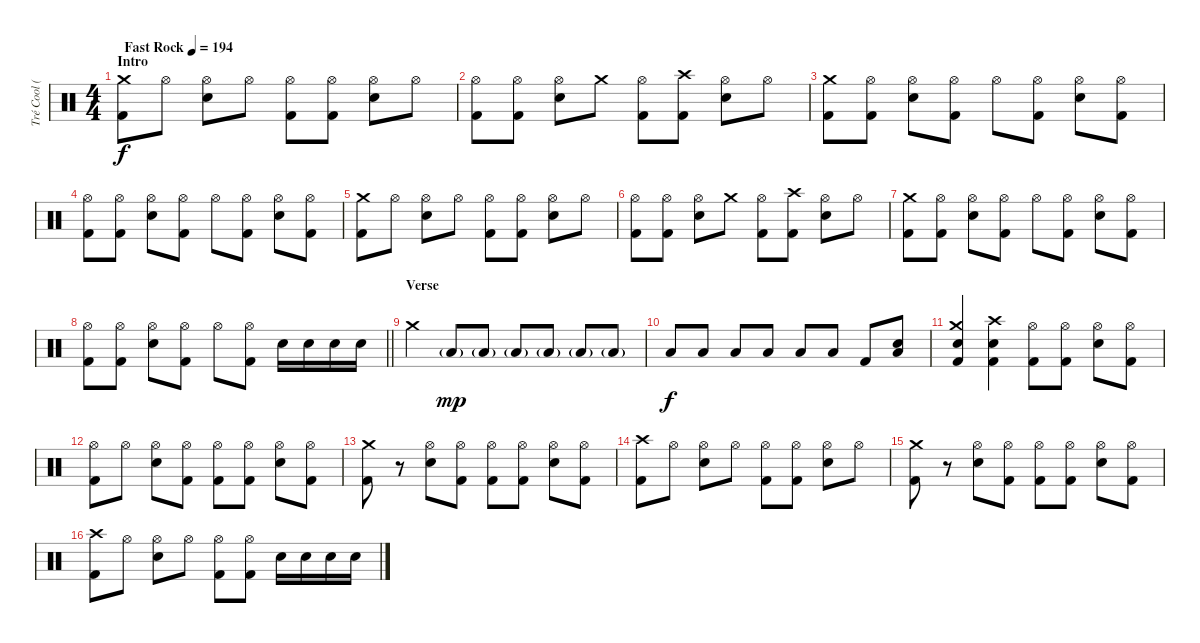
\track ("Tré Cool (Drums)" "Tré Cool (") {instrument percussion}
\staff {score}
\articulation defaults
\ts (4 4)
\section ("" "Intro")
\tempo (194 "Fast Rock")
\clef neutral
\ks c
("Kick (hit) 2" "Crash medium (hit)").8{dy f} "Hi-Hat (open)".8 ("Snare (hit) 2" "Hi-Hat (open)").8 "Hi-Hat (open)".8 ("Kick (hit) 2" "Hi-Hat (open)").8 ("Kick (hit) 2" "Hi-Hat (open)").8 ("Snare (hit) 2" "Hi-Hat (open)").8 "Hi-Hat (open)".8 |
("Kick (hit) 2" "Hi-Hat (open)").8 ("Kick (hit) 2" "Hi-Hat (open)").8 ("Snare (hit) 2" "Hi-Hat (open)").8 "Crash medium (hit)".8 ("Kick (hit) 2" "Hi-Hat (open)").8 ("Kick (hit) 2" "Crash high (hit)").8 ("Snare (hit) 2" "Hi-Hat (open)").8 "Hi-Hat (open)".8 |
("Kick (hit) 2" "Crash medium (hit)").8 ("Kick (hit) 2" "Hi-Hat (open)").8 ("Snare (hit) 2" "Hi-Hat (open)").8 ("Kick (hit) 2" "Hi-Hat (open)").8 "Hi-Hat (open)".8 ("Kick (hit) 2" "Hi-Hat (open)").8 ("Snare (hit) 2" "Hi-Hat (open)").8 ("Kick (hit) 2" "Hi-Hat (open)").8 |
("Kick (hit) 2" "Hi-Hat (open)").8 ("Kick (hit) 2" "Hi-Hat (open)").8 ("Snare (hit) 2" "Hi-Hat (open)").8 ("Kick (hit) 2" "Hi-Hat (open)").8 "Hi-Hat (open)".8 ("Kick (hit) 2" "Hi-Hat (open)").8 ("Snare (hit) 2" "Hi-Hat (open)").8 ("Kick (hit) 2" "Hi-Hat (open)").8 |
("Kick (hit) 2" "Crash medium (hit)").8 "Hi-Hat (open)".8 ("Snare (hit) 2" "Hi-Hat (open)").8 "Hi-Hat (open)".8 ("Kick (hit) 2" "Hi-Hat (open)").8 ("Kick (hit) 2" "Hi-Hat (open)").8 ("Snare (hit) 2" "Hi-Hat (open)").8 "Hi-Hat (open)".8 |
("Kick (hit) 2" "Hi-Hat (open)").8 ("Kick (hit) 2" "Hi-Hat (open)").8 ("Snare (hit) 2" "Hi-Hat (open)").8 "Crash medium (hit)".8 ("Kick (hit) 2" "Hi-Hat (open)").8 ("Kick (hit) 2" "Crash high (hit)").8 ("Snare (hit) 2" "Hi-Hat (open)").8 "Hi-Hat (open)".8 |
("Kick (hit) 2" "Crash medium (hit)").8 ("Kick (hit) 2" "Hi-Hat (open)").8 ("Snare (hit) 2" "Hi-Hat (open)").8 ("Kick (hit) 2" "Hi-Hat (open)").8 "Hi-Hat (open)".8 ("Kick (hit) 2" "Hi-Hat (open)").8 ("Snare (hit) 2" "Hi-Hat (open)").8 ("Kick (hit) 2" "Hi-Hat (open)").8 |
\barLineRight lightlight
("Kick (hit) 2" "Hi-Hat (open)").8 ("Kick (hit) 2" "Hi-Hat (open)").8 ("Snare (hit) 2" "Hi-Hat (open)").8 ("Kick (hit) 2" "Hi-Hat (open)").8 "Hi-Hat (open)".8 ("Kick (hit) 2" "Hi-Hat (open)").8 "Snare (hit) 2".16 "Snare (hit) 2".16 "Snare (hit) 2".16 "Snare (hit) 2".16 |
\section ("" "Verse")
"Crash medium (hit)".4 "Low Floor Tom (hit)"{g}.8{dy mp} "Low Floor Tom (hit)"{g}.8 "Low Floor Tom (hit)"{g}.8 "Low Floor Tom (hit)"{g}.8 "Low Floor Tom (hit)"{g}.8 "Low Floor Tom (hit)"{g}.8 |
"Low Floor Tom (hit)".8{dy f} "Low Floor Tom (hit)".8 "Low Floor Tom (hit)".8 "Low Floor Tom (hit)".8 "Low Floor Tom (hit)".8 "Low Floor Tom (hit)".8 "Kick (hit) 2".8 ("Low Floor Tom (hit)" "Snare (hit) 2").8 |
("Kick (hit) 2" "Snare (hit) 2" "Crash medium (hit)").4 ("Kick (hit) 2" "Snare (hit) 2" "Crash high (hit)").4 ("Kick (hit) 2" "Hi-Hat (open)").8 ("Kick (hit) 2" "Hi-Hat (open)").8 ("Snare (hit) 2" "Hi-Hat (open)").8 ("Kick (hit) 2" "Hi-Hat (open)").8 |
("Kick (hit) 2" "Hi-Hat (open)").8 "Hi-Hat (open)".8 ("Snare (hit) 2" "Hi-Hat (open)").8 ("Kick (hit) 2" "Hi-Hat (open)").8 ("Kick (hit) 2" "Hi-Hat (open)").8 ("Kick (hit) 2" "Hi-Hat (open)").8 ("Snare (hit) 2" "Hi-Hat (open)").8 ("Kick (hit) 2" "Hi-Hat (open)").8 |
("Kick (hit) 2" "Crash medium (hit)").8 r.8 ("Snare (hit) 2" "Hi-Hat (open)").8 ("Kick (hit) 2" "Hi-Hat (open)").8 ("Kick (hit) 2" "Hi-Hat (open)").8 ("Kick (hit) 2" "Hi-Hat (open)").8 ("Snare (hit) 2" "Hi-Hat (open)").8 ("Kick (hit) 2" "Hi-Hat (open)").8 |
("Kick (hit) 2" "Crash high (hit)").8 "Hi-Hat (open)".8 ("Snare (hit) 2" "Hi-Hat (open)").8 "Hi-Hat (open)".8 ("Kick (hit) 2" "Hi-Hat (open)").8 ("Kick (hit) 2" "Hi-Hat (open)").8 ("Snare (hit) 2" "Hi-Hat (open)").8 "Hi-Hat (open)".8 |
("Kick (hit) 2" "Crash medium (hit)").8 r.8 ("Snare (hit) 2" "Hi-Hat (open)").8 ("Kick (hit) 2" "Hi-Hat (open)").8 ("Kick (hit) 2" "Hi-Hat (open)").8 ("Kick (hit) 2" "Hi-Hat (open)").8 ("Snare (hit) 2" "Hi-Hat (open)").8 ("Kick (hit) 2" "Hi-Hat (open)").8 |
("Kick (hit) 2" "Crash high (hit)").8 "Hi-Hat (open)".8 ("Snare (hit) 2" "Hi-Hat (open)").8 "Hi-Hat (open)".8 ("Kick (hit) 2" "Hi-Hat (open)").8 ("Kick (hit) 2" "Hi-Hat (open)").8 "Snare (hit) 2".16 "Snare (hit) 2".16 "Snare (hit) 2".16 "Snare (hit) 2".16
